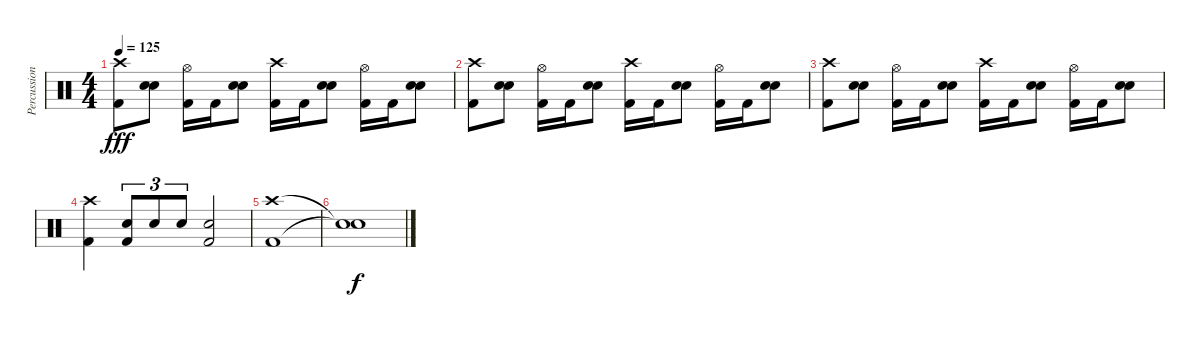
\track ("Percussion" "Percussion") {instrument percussion}
\staff {score}
\articulation defaults
\ts (4 4)
\tempo 125
\clef neutral
\ks c
("Crash high (hit)" "Kick (hit) 2").8{dy fff} ("Snare (hit) 2" "Snare (hit) 2").8 ("Hi-Hat (open)" "Kick (hit) 2").16 "Kick (hit) 2".16 ("Snare (hit) 2" "Snare (hit) 2").8 ("Crash high (hit)" "Kick (hit) 2").16 "Kick (hit) 2".16 ("Snare (hit) 2" "Snare (hit) 2").8 ("Hi-Hat (open)" "Kick (hit) 2").16 "Kick (hit) 2".16 ("Snare (hit) 2" "Snare (hit) 2").8 |
("Crash high (hit)" "Kick (hit) 2").8 ("Snare (hit) 2" "Snare (hit) 2").8 ("Hi-Hat (open)" "Kick (hit) 2").16 "Kick (hit) 2".16 ("Snare (hit) 2" "Snare (hit) 2").8 ("Crash high (hit)" "Kick (hit) 2").16 "Kick (hit) 2".16 ("Snare (hit) 2" "Snare (hit) 2").8 ("Hi-Hat (open)" "Kick (hit) 2").16 "Kick (hit) 2".16 ("Snare (hit) 2" "Snare (hit) 2").8 |
("Crash high (hit)" "Kick (hit) 2").8 ("Snare (hit) 2" "Snare (hit) 2").8 ("Hi-Hat (open)" "Kick (hit) 2").16 "Kick (hit) 2".16 ("Snare (hit) 2" "Snare (hit) 2").8 ("Crash high (hit)" "Kick (hit) 2").16 "Kick (hit) 2".16 ("Snare (hit) 2" "Snare (hit) 2").8 ("Hi-Hat (open)" "Kick (hit) 2").16 "Kick (hit) 2".16 ("Snare (hit) 2" "Snare (hit) 2").8 |
("Crash high (hit)" "Kick (hit) 2").4 ("Snare (hit) 2" "Kick (hit) 2").8{tu (3 2)} "Snare (hit) 2".8{tu (3 2)} "Snare (hit) 2".8{tu (3 2)} ("Snare (hit) 2" "Kick (hit) 2").2 |
("Crash high (hit)" "Kick (hit) 2").1 |
("Snare (hit)"{t} "Snare (hit)"{t}).1{dy f}
